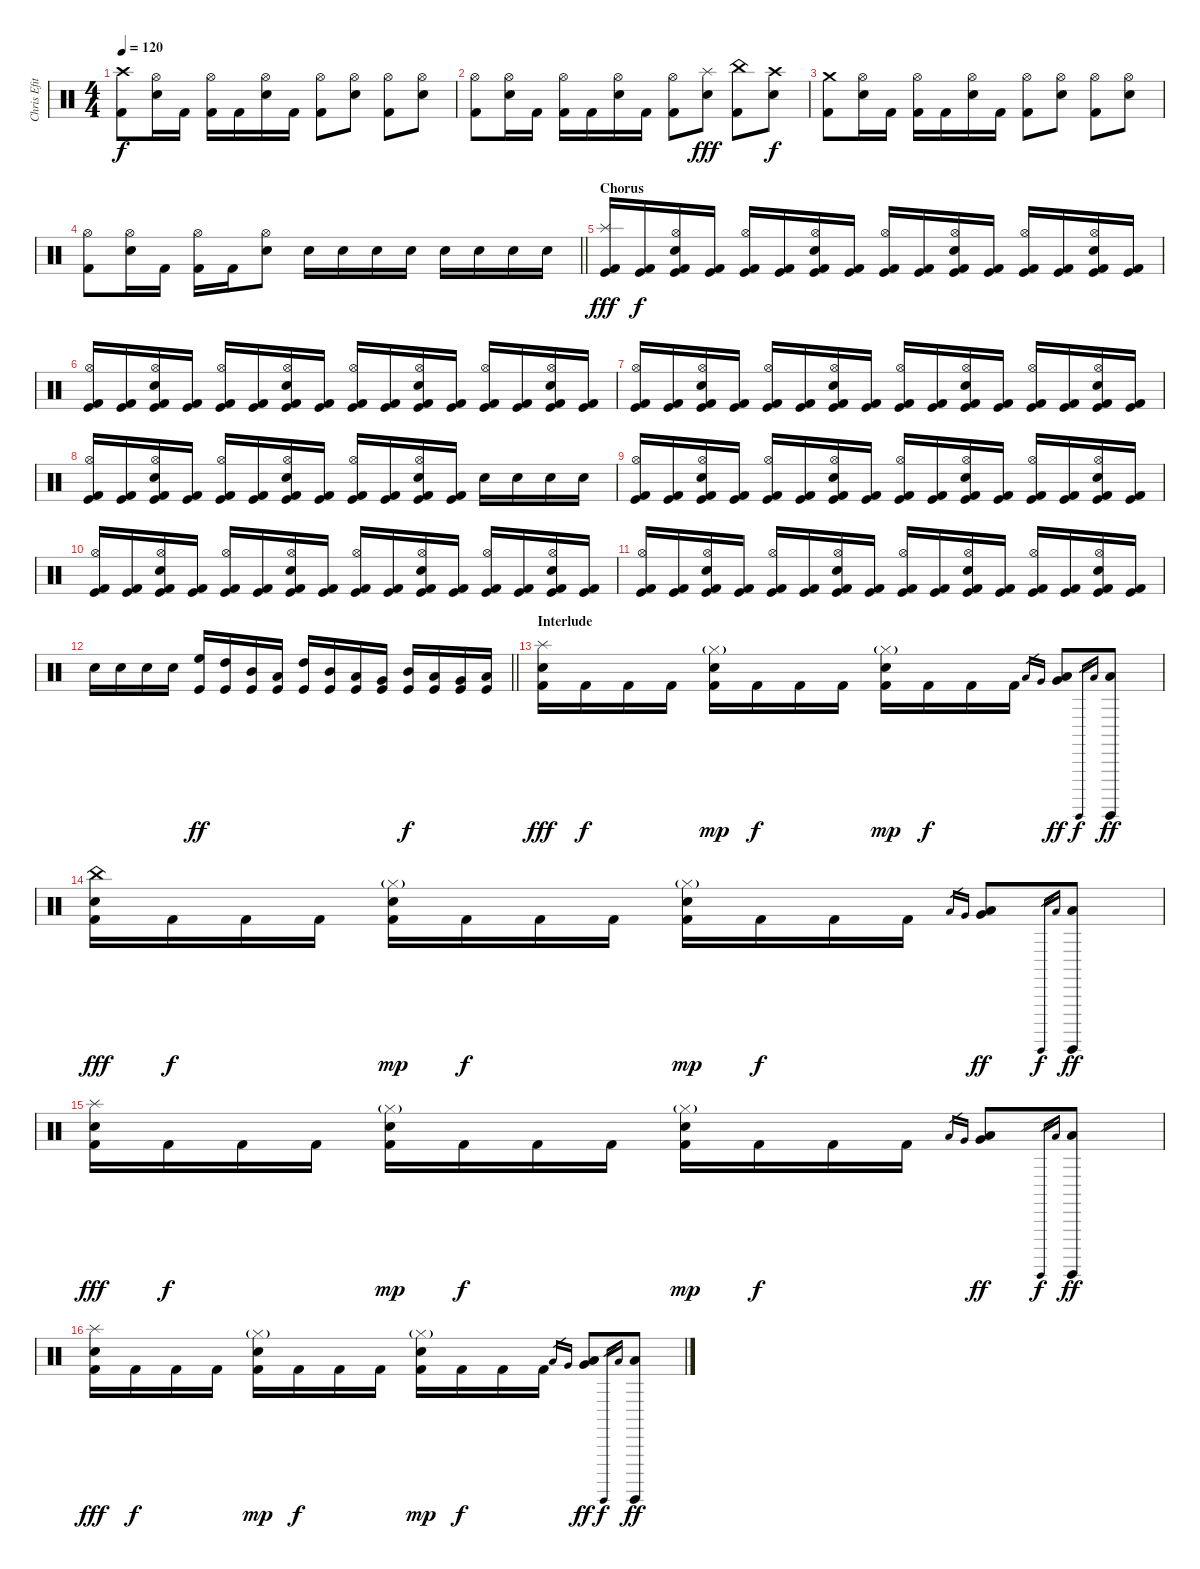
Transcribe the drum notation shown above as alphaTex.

\track ("Chris Efithimiadis (drums)" "Chris Efit") {instrument percussion}
\staff {score}
\articulation defaults
\ts (4 4)
\tempo 120
\clef neutral
\ks c
("Crash high (hit)" "Kick (hit) 2").8{dy f} ("Hi-Hat (open)" "Snare (hit) 2").16 "Kick (hit) 2".16 ("Hi-Hat (open)" "Kick (hit) 2").16 "Kick (hit) 2".16 ("Hi-Hat (open)" "Snare (hit) 2").16 "Kick (hit) 2".16 ("Hi-Hat (open)" "Kick (hit) 2").8 ("Hi-Hat (open)" "Snare (hit) 2").8 ("Hi-Hat (open)" "Kick (hit) 2").8 ("Hi-Hat (open)" "Snare (hit) 2").8 |
("Hi-Hat (open)" "Kick (hit) 2").8 ("Hi-Hat (open)" "Snare (hit) 2").16 "Kick (hit) 2".16 ("Hi-Hat (open)" "Kick (hit) 2").16 "Kick (hit) 2".16 ("Hi-Hat (open)" "Snare (hit) 2").16 "Kick (hit) 2".16 ("Hi-Hat (open)" "Kick (hit) 2").8 ("Splash (hit)" "Snare (hit) 2").8{dy fff} ("China (hit)" "Kick (hit) 2").8 ("Crash high (hit)" "Snare (hit) 2").8{dy f} |
("Crash medium (hit)" "Kick (hit) 2").8 ("Hi-Hat (open)" "Snare (hit) 2").16 "Kick (hit) 2".16 ("Hi-Hat (open)" "Kick (hit) 2").16 "Kick (hit) 2".16 ("Hi-Hat (open)" "Snare (hit) 2").16 "Kick (hit) 2".16 ("Hi-Hat (open)" "Kick (hit) 2").8 ("Hi-Hat (open)" "Snare (hit) 2").8 ("Hi-Hat (open)" "Kick (hit) 2").8 ("Hi-Hat (open)" "Snare (hit) 2").8 |
\barLineRight lightlight
("Hi-Hat (open)" "Kick (hit) 2").8 ("Hi-Hat (open)" "Snare (hit) 2").16 "Kick (hit) 2".16 ("Hi-Hat (open)" "Kick (hit) 2").16 "Kick (hit) 2".16 ("Hi-Hat (open)" "Snare (hit) 2").8 "Snare (hit) 2".16 "Snare (hit) 2".16 "Snare (hit) 2".16 "Snare (hit) 2".16 "Snare (hit) 2".16 "Snare (hit) 2".16 "Snare (hit) 2".16 "Snare (hit) 2".16 |
\section ("" "Chorus")
("Splash (hit)" "Kick (hit)" "Kick (hit) 2").16{dy fff} ("Kick (hit)" "Kick (hit) 2").16{dy f} ("Hi-Hat (open)" "Snare (hit) 2" "Kick (hit)" "Kick (hit) 2").16 ("Kick (hit)" "Kick (hit) 2").16 ("Hi-Hat (open)" "Kick (hit)" "Kick (hit) 2").16 ("Kick (hit)" "Kick (hit) 2").16 ("Hi-Hat (open)" "Snare (hit) 2" "Kick (hit)" "Kick (hit) 2").16 ("Kick (hit)" "Kick (hit) 2").16 ("Hi-Hat (open)" "Kick (hit)" "Kick (hit) 2").16 ("Kick (hit)" "Kick (hit) 2").16 ("Hi-Hat (open)" "Snare (hit) 2" "Kick (hit)" "Kick (hit) 2").16 ("Kick (hit)" "Kick (hit) 2").16 ("Hi-Hat (open)" "Kick (hit)" "Kick (hit) 2").16 ("Kick (hit)" "Kick (hit) 2").16 ("Hi-Hat (open)" "Snare (hit) 2" "Kick (hit)" "Kick (hit) 2").16 ("Kick (hit)" "Kick (hit) 2").16 |
("Hi-Hat (open)" "Kick (hit)" "Kick (hit) 2").16 ("Kick (hit)" "Kick (hit) 2").16 ("Hi-Hat (open)" "Snare (hit) 2" "Kick (hit)" "Kick (hit) 2").16 ("Kick (hit)" "Kick (hit) 2").16 ("Hi-Hat (open)" "Kick (hit)" "Kick (hit) 2").16 ("Kick (hit)" "Kick (hit) 2").16 ("Hi-Hat (open)" "Snare (hit) 2" "Kick (hit)" "Kick (hit) 2").16 ("Kick (hit)" "Kick (hit) 2").16 ("Hi-Hat (open)" "Kick (hit)" "Kick (hit) 2").16 ("Kick (hit)" "Kick (hit) 2").16 ("Hi-Hat (open)" "Snare (hit) 2" "Kick (hit)" "Kick (hit) 2").16 ("Kick (hit)" "Kick (hit) 2").16 ("Hi-Hat (open)" "Kick (hit)" "Kick (hit) 2").16 ("Kick (hit)" "Kick (hit) 2").16 ("Hi-Hat (open)" "Snare (hit) 2" "Kick (hit)" "Kick (hit) 2").16 ("Kick (hit)" "Kick (hit) 2").16 |
("Hi-Hat (open)" "Kick (hit)" "Kick (hit) 2").16 ("Kick (hit)" "Kick (hit) 2").16 ("Hi-Hat (open)" "Snare (hit) 2" "Kick (hit)" "Kick (hit) 2").16 ("Kick (hit)" "Kick (hit) 2").16 ("Hi-Hat (open)" "Kick (hit)" "Kick (hit) 2").16 ("Kick (hit)" "Kick (hit) 2").16 ("Hi-Hat (open)" "Snare (hit) 2" "Kick (hit)" "Kick (hit) 2").16 ("Kick (hit)" "Kick (hit) 2").16 ("Hi-Hat (open)" "Kick (hit)" "Kick (hit) 2").16 ("Kick (hit)" "Kick (hit) 2").16 ("Hi-Hat (open)" "Snare (hit) 2" "Kick (hit)" "Kick (hit) 2").16 ("Kick (hit)" "Kick (hit) 2").16 ("Hi-Hat (open)" "Kick (hit)" "Kick (hit) 2").16 ("Kick (hit)" "Kick (hit) 2").16 ("Hi-Hat (open)" "Snare (hit) 2" "Kick (hit)" "Kick (hit) 2").16 ("Kick (hit)" "Kick (hit) 2").16 |
("Hi-Hat (open)" "Kick (hit)" "Kick (hit) 2").16 ("Kick (hit)" "Kick (hit) 2").16 ("Hi-Hat (open)" "Snare (hit) 2" "Kick (hit)" "Kick (hit) 2").16 ("Kick (hit)" "Kick (hit) 2").16 ("Hi-Hat (open)" "Kick (hit)" "Kick (hit) 2").16 ("Kick (hit)" "Kick (hit) 2").16 ("Hi-Hat (open)" "Snare (hit) 2" "Kick (hit)" "Kick (hit) 2").16 ("Kick (hit)" "Kick (hit) 2").16 ("Hi-Hat (open)" "Kick (hit)" "Kick (hit) 2").16 ("Kick (hit)" "Kick (hit) 2").16 ("Hi-Hat (open)" "Snare (hit) 2" "Kick (hit)" "Kick (hit) 2").16 ("Kick (hit)" "Kick (hit) 2").16 "Snare (hit) 2".16 "Snare (hit) 2".16 "Snare (hit) 2".16 "Snare (hit) 2".16 |
("Hi-Hat (open)" "Kick (hit)" "Kick (hit) 2").16 ("Kick (hit)" "Kick (hit) 2").16 ("Hi-Hat (open)" "Snare (hit) 2" "Kick (hit)" "Kick (hit) 2").16 ("Kick (hit)" "Kick (hit) 2").16 ("Hi-Hat (open)" "Kick (hit)" "Kick (hit) 2").16 ("Kick (hit)" "Kick (hit) 2").16 ("Hi-Hat (open)" "Snare (hit) 2" "Kick (hit)" "Kick (hit) 2").16 ("Kick (hit)" "Kick (hit) 2").16 ("Hi-Hat (open)" "Kick (hit)" "Kick (hit) 2").16 ("Kick (hit)" "Kick (hit) 2").16 ("Hi-Hat (open)" "Snare (hit) 2" "Kick (hit)" "Kick (hit) 2").16 ("Kick (hit)" "Kick (hit) 2").16 ("Hi-Hat (open)" "Kick (hit)" "Kick (hit) 2").16 ("Kick (hit)" "Kick (hit) 2").16 ("Hi-Hat (open)" "Snare (hit) 2" "Kick (hit)" "Kick (hit) 2").16 ("Kick (hit)" "Kick (hit) 2").16 |
("Hi-Hat (open)" "Kick (hit)" "Kick (hit) 2").16 ("Kick (hit)" "Kick (hit) 2").16 ("Hi-Hat (open)" "Snare (hit) 2" "Kick (hit)" "Kick (hit) 2").16 ("Kick (hit)" "Kick (hit) 2").16 ("Hi-Hat (open)" "Kick (hit)" "Kick (hit) 2").16 ("Kick (hit)" "Kick (hit) 2").16 ("Hi-Hat (open)" "Snare (hit) 2" "Kick (hit)" "Kick (hit) 2").16 ("Kick (hit)" "Kick (hit) 2").16 ("Hi-Hat (open)" "Kick (hit)" "Kick (hit) 2").16 ("Kick (hit)" "Kick (hit) 2").16 ("Hi-Hat (open)" "Snare (hit) 2" "Kick (hit)" "Kick (hit) 2").16 ("Kick (hit)" "Kick (hit) 2").16 ("Hi-Hat (open)" "Kick (hit)" "Kick (hit) 2").16 ("Kick (hit)" "Kick (hit) 2").16 ("Hi-Hat (open)" "Snare (hit) 2" "Kick (hit)" "Kick (hit) 2").16 ("Kick (hit)" "Kick (hit) 2").16 |
("Hi-Hat (open)" "Kick (hit)" "Kick (hit) 2").16 ("Kick (hit)" "Kick (hit) 2").16 ("Hi-Hat (open)" "Snare (hit) 2" "Kick (hit)" "Kick (hit) 2").16 ("Kick (hit)" "Kick (hit) 2").16 ("Hi-Hat (open)" "Kick (hit)" "Kick (hit) 2").16 ("Kick (hit)" "Kick (hit) 2").16 ("Hi-Hat (open)" "Snare (hit) 2" "Kick (hit)" "Kick (hit) 2").16 ("Kick (hit)" "Kick (hit) 2").16 ("Hi-Hat (open)" "Kick (hit)" "Kick (hit) 2").16 ("Kick (hit)" "Kick (hit) 2").16 ("Hi-Hat (open)" "Snare (hit) 2" "Kick (hit)" "Kick (hit) 2").16 ("Kick (hit)" "Kick (hit) 2").16 ("Hi-Hat (open)" "Kick (hit)" "Kick (hit) 2").16 ("Kick (hit)" "Kick (hit) 2").16 ("Hi-Hat (open)" "Snare (hit) 2" "Kick (hit)" "Kick (hit) 2").16 ("Kick (hit)" "Kick (hit) 2").16 |
\barLineRight lightlight "Snare (hit) 2".16 "Snare (hit) 2".16 "Snare (hit) 2".16 "Snare (hit) 2".16
("High Floor Tom (hit)" "Kick (hit)").16{dy ff} ("High Tom (hit)" "Kick (hit)").16 ("Mid Tom (hit)" "Kick (hit)").16 ("Low Tom (hit)" "Kick (hit)").16 ("High Tom (hit)" "Kick (hit)").16 ("Mid Tom (hit)" "Kick (hit)").16 ("Low Tom (hit)" "Kick (hit)").16 ("Very Low Tom (hit)" "Kick (hit)").16 ("Mid Tom (hit)" "Kick (hit)").16{dy f} ("Low Tom (hit)" "Kick (hit)").16 ("Very Low Tom (hit)" "Kick (hit)").16 ("Low Floor Tom (hit)" "Kick (hit)").16 |
\section ("" "Interlude")
("Splash (hit)" "Snare (hit) 2" "Kick (hit) 2").16{dy fff} "Kick (hit) 2".16{dy f} "Kick (hit) 2".16 "Kick (hit) 2".16 ("Hi-Hat (closed)"{g} "Snare (hit) 2" "Kick (hit) 2").16{dy mp} "Kick (hit) 2".16{dy f} "Kick (hit) 2".16 "Kick (hit) 2".16 ("Hi-Hat (closed)"{g} "Snare (hit) 2" "Kick (hit) 2").16{dy mp} "Kick (hit) 2".16{dy f} "Kick (hit) 2".16 "Kick (hit) 2".16 "Low Floor Tom (hit)".16{gr} "Very Low Tom (hit)".16{gr} ("Low Floor Tom (hit)" "Very Low Tom (hit)").8{dy ff} "Surdo (hit)".16{gr dy f} "Low Floor Tom (hit)".16{gr} ("Surdo (hit)" "Low Floor Tom (hit)").8{dy ff} |
("China (hit)" "Snare (hit) 2" "Kick (hit) 2").16{dy fff} "Kick (hit) 2".16{dy f} "Kick (hit) 2".16 "Kick (hit) 2".16 ("Hi-Hat (closed)"{g} "Snare (hit) 2" "Kick (hit) 2").16{dy mp} "Kick (hit) 2".16{dy f} "Kick (hit) 2".16 "Kick (hit) 2".16 ("Hi-Hat (closed)"{g} "Snare (hit) 2" "Kick (hit) 2").16{dy mp} "Kick (hit) 2".16{dy f} "Kick (hit) 2".16 "Kick (hit) 2".16 "Low Floor Tom (hit)".16{gr} "Very Low Tom (hit)".16{gr} ("Low Floor Tom (hit)" "Very Low Tom (hit)").8{dy ff} "Surdo (hit)".16{gr dy f} "Low Floor Tom (hit)".16{gr} ("Surdo (hit)" "Low Floor Tom (hit)").8{dy ff} |
("Splash (hit)" "Snare (hit) 2" "Kick (hit) 2").16{dy fff} "Kick (hit) 2".16{dy f} "Kick (hit) 2".16 "Kick (hit) 2".16 ("Hi-Hat (closed)"{g} "Snare (hit) 2" "Kick (hit) 2").16{dy mp} "Kick (hit) 2".16{dy f} "Kick (hit) 2".16 "Kick (hit) 2".16 ("Hi-Hat (closed)"{g} "Snare (hit) 2" "Kick (hit) 2").16{dy mp} "Kick (hit) 2".16{dy f} "Kick (hit) 2".16 "Kick (hit) 2".16 "Low Floor Tom (hit)".16{gr} "Very Low Tom (hit)".16{gr} ("Low Floor Tom (hit)" "Very Low Tom (hit)").8{dy ff} "Surdo (hit)".16{gr dy f} "Low Floor Tom (hit)".16{gr} ("Surdo (hit)" "Low Floor Tom (hit)").8{dy ff} |
("Splash (hit)" "Snare (hit) 2" "Kick (hit) 2").16{dy fff} "Kick (hit) 2".16{dy f} "Kick (hit) 2".16 "Kick (hit) 2".16 ("Hi-Hat (closed)"{g} "Snare (hit) 2" "Kick (hit) 2").16{dy mp} "Kick (hit) 2".16{dy f} "Kick (hit) 2".16 "Kick (hit) 2".16 ("Hi-Hat (closed)"{g} "Snare (hit) 2" "Kick (hit) 2").16{dy mp} "Kick (hit) 2".16{dy f} "Kick (hit) 2".16 "Kick (hit) 2".16 "Low Floor Tom (hit)".16{gr} "Very Low Tom (hit)".16{gr} ("Low Floor Tom (hit)" "Very Low Tom (hit)").8{dy ff} "Surdo (hit)".16{gr dy f} "Low Floor Tom (hit)".16{gr} ("Surdo (hit)" "Low Floor Tom (hit)").8{dy ff}
